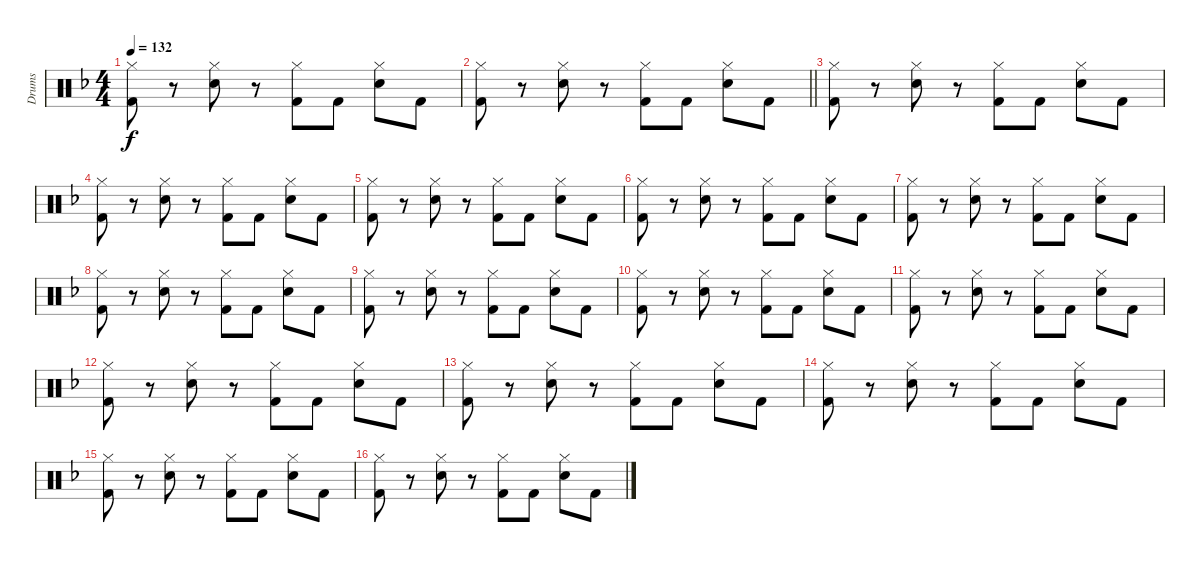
\track ("Drums" "Drums") {instrument percussion}
\staff {score}
\articulation defaults
\ts (4 4)
\tempo 132
\clef neutral
\ks f
("Hi-Hat (closed)" "Kick (hit) 2").8{dy f} r.8 ("Hi-Hat (closed)" "Snare (hit) 2").8 r.8 ("Hi-Hat (closed)" "Kick (hit) 2").8 "Kick (hit) 2".8 ("Hi-Hat (closed)" "Snare (hit) 2").8 "Kick (hit) 2".8 |
\barLineRight lightlight
("Hi-Hat (closed)" "Kick (hit) 2").8 r.8 ("Hi-Hat (closed)" "Snare (hit) 2").8 r.8 ("Hi-Hat (closed)" "Kick (hit) 2").8 "Kick (hit) 2".8 ("Hi-Hat (closed)" "Snare (hit) 2").8 "Kick (hit) 2".8 |
("Hi-Hat (closed)" "Kick (hit) 2").8 r.8 ("Hi-Hat (closed)" "Snare (hit) 2").8 r.8 ("Hi-Hat (closed)" "Kick (hit) 2").8 "Kick (hit) 2".8 ("Hi-Hat (closed)" "Snare (hit) 2").8 "Kick (hit) 2".8 |
("Hi-Hat (closed)" "Kick (hit) 2").8 r.8 ("Hi-Hat (closed)" "Snare (hit) 2").8 r.8 ("Hi-Hat (closed)" "Kick (hit) 2").8 "Kick (hit) 2".8 ("Hi-Hat (closed)" "Snare (hit) 2").8 "Kick (hit) 2".8 |
("Hi-Hat (closed)" "Kick (hit) 2").8 r.8 ("Hi-Hat (closed)" "Snare (hit) 2").8 r.8 ("Hi-Hat (closed)" "Kick (hit) 2").8 "Kick (hit) 2".8 ("Hi-Hat (closed)" "Snare (hit) 2").8 "Kick (hit) 2".8 |
("Hi-Hat (closed)" "Kick (hit) 2").8 r.8 ("Hi-Hat (closed)" "Snare (hit) 2").8 r.8 ("Hi-Hat (closed)" "Kick (hit) 2").8 "Kick (hit) 2".8 ("Hi-Hat (closed)" "Snare (hit) 2").8 "Kick (hit) 2".8 |
("Hi-Hat (closed)" "Kick (hit) 2").8 r.8 ("Hi-Hat (closed)" "Snare (hit) 2").8 r.8 ("Hi-Hat (closed)" "Kick (hit) 2").8 "Kick (hit) 2".8 ("Hi-Hat (closed)" "Snare (hit) 2").8 "Kick (hit) 2".8 |
("Hi-Hat (closed)" "Kick (hit) 2").8 r.8 ("Hi-Hat (closed)" "Snare (hit) 2").8 r.8 ("Hi-Hat (closed)" "Kick (hit) 2").8 "Kick (hit) 2".8 ("Hi-Hat (closed)" "Snare (hit) 2").8 "Kick (hit) 2".8 |
("Hi-Hat (closed)" "Kick (hit) 2").8 r.8 ("Hi-Hat (closed)" "Snare (hit) 2").8 r.8 ("Hi-Hat (closed)" "Kick (hit) 2").8 "Kick (hit) 2".8 ("Hi-Hat (closed)" "Snare (hit) 2").8 "Kick (hit) 2".8 |
("Hi-Hat (closed)" "Kick (hit) 2").8 r.8 ("Hi-Hat (closed)" "Snare (hit) 2").8 r.8 ("Hi-Hat (closed)" "Kick (hit) 2").8 "Kick (hit) 2".8 ("Hi-Hat (closed)" "Snare (hit) 2").8 "Kick (hit) 2".8 |
("Hi-Hat (closed)" "Kick (hit) 2").8 r.8 ("Hi-Hat (closed)" "Snare (hit) 2").8 r.8 ("Hi-Hat (closed)" "Kick (hit) 2").8 "Kick (hit) 2".8 ("Hi-Hat (closed)" "Snare (hit) 2").8 "Kick (hit) 2".8 |
("Hi-Hat (closed)" "Kick (hit) 2").8 r.8 ("Hi-Hat (closed)" "Snare (hit) 2").8 r.8 ("Hi-Hat (closed)" "Kick (hit) 2").8 "Kick (hit) 2".8 ("Hi-Hat (closed)" "Snare (hit) 2").8 "Kick (hit) 2".8 |
("Hi-Hat (closed)" "Kick (hit) 2").8 r.8 ("Hi-Hat (closed)" "Snare (hit) 2").8 r.8 ("Hi-Hat (closed)" "Kick (hit) 2").8 "Kick (hit) 2".8 ("Hi-Hat (closed)" "Snare (hit) 2").8 "Kick (hit) 2".8 |
("Hi-Hat (closed)" "Kick (hit) 2").8 r.8 ("Hi-Hat (closed)" "Snare (hit) 2").8 r.8 ("Hi-Hat (closed)" "Kick (hit) 2").8 "Kick (hit) 2".8 ("Hi-Hat (closed)" "Snare (hit) 2").8 "Kick (hit) 2".8 |
("Hi-Hat (closed)" "Kick (hit) 2").8 r.8 ("Hi-Hat (closed)" "Snare (hit) 2").8 r.8 ("Hi-Hat (closed)" "Kick (hit) 2").8 "Kick (hit) 2".8 ("Hi-Hat (closed)" "Snare (hit) 2").8 "Kick (hit) 2".8 |
("Hi-Hat (closed)" "Kick (hit) 2").8 r.8 ("Hi-Hat (closed)" "Snare (hit) 2").8 r.8 ("Hi-Hat (closed)" "Kick (hit) 2").8 "Kick (hit) 2".8 ("Hi-Hat (closed)" "Snare (hit) 2").8 "Kick (hit) 2".8
